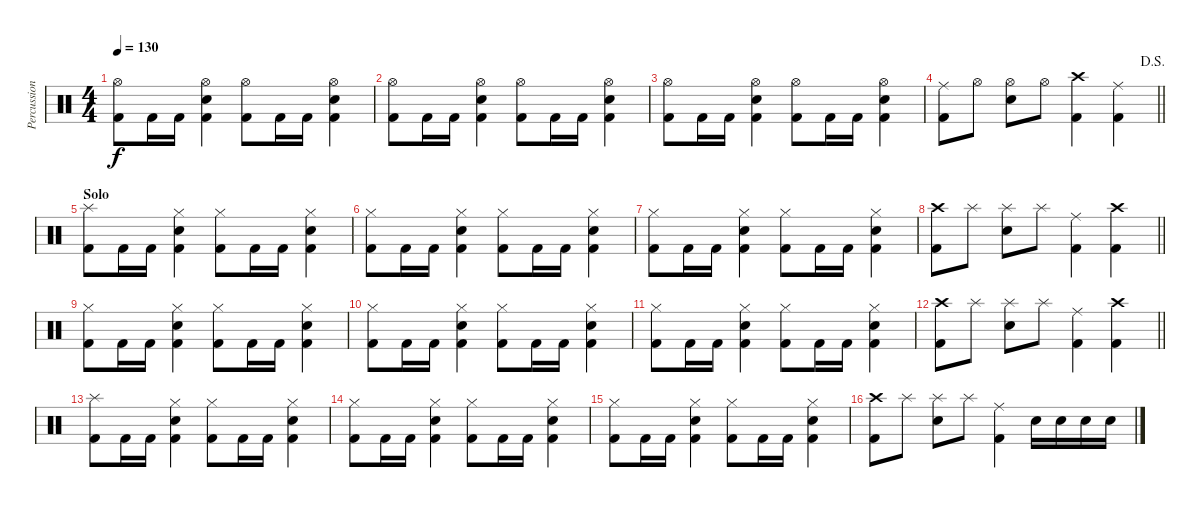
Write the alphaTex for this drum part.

\track ("Percussion" "Percussion") {instrument percussion}
\staff {score}
\articulation defaults
\ts (4 4)
\tempo 130
\clef neutral
\ks c
("Hi-Hat (open)" "Kick (hit) 2").8{dy f} "Kick (hit) 2".16 "Kick (hit) 2".16 ("Hi-Hat (open)" "Electric Snare (hit)" "Kick (hit) 2").4 ("Hi-Hat (open)" "Kick (hit) 2").8 "Kick (hit) 2".16 "Kick (hit) 2".16 ("Hi-Hat (open)" "Electric Snare (hit)" "Kick (hit) 2").4 |
("Hi-Hat (open)" "Kick (hit) 2").8 "Kick (hit) 2".16 "Kick (hit) 2".16 ("Hi-Hat (open)" "Electric Snare (hit)" "Kick (hit) 2").4 ("Hi-Hat (open)" "Kick (hit) 2").8 "Kick (hit) 2".16 "Kick (hit) 2".16 ("Hi-Hat (open)" "Electric Snare (hit)" "Kick (hit) 2").4 |
("Hi-Hat (open)" "Kick (hit) 2").8 "Kick (hit) 2".16 "Kick (hit) 2".16 ("Hi-Hat (open)" "Electric Snare (hit)" "Kick (hit) 2").4 ("Hi-Hat (open)" "Kick (hit) 2").8 "Kick (hit) 2".16 "Kick (hit) 2".16 ("Hi-Hat (open)" "Electric Snare (hit)" "Kick (hit) 2").4 |
\jump dalsegno
\barLineRight lightlight
("Ride (middle)" "Kick (hit) 2").8 "Hi-Hat (open)".8 ("Hi-Hat (open)" "Electric Snare (hit)").8 "Hi-Hat (open)".8 ("Crash high (hit)" "Kick (hit) 2").4 ("Ride (middle)" "Kick (hit) 2").4 |
\section ("" "Solo")
("Splash (hit)" "Kick (hit) 2").8 "Kick (hit) 2".16 "Kick (hit) 2".16 ("Hi-Hat (closed)" "Electric Snare (hit)" "Kick (hit) 2").4 ("Hi-Hat (closed)" "Kick (hit) 2").8 "Kick (hit) 2".16 "Kick (hit) 2".16 ("Hi-Hat (closed)" "Electric Snare (hit)" "Kick (hit) 2").4 |
("Hi-Hat (closed)" "Kick (hit) 2").8 "Kick (hit) 2".16 "Kick (hit) 2".16 ("Hi-Hat (closed)" "Electric Snare (hit)" "Kick (hit) 2").4 ("Hi-Hat (closed)" "Kick (hit) 2").8 "Kick (hit) 2".16 "Kick (hit) 2".16 ("Hi-Hat (closed)" "Electric Snare (hit)" "Kick (hit) 2").4 |
("Hi-Hat (closed)" "Kick (hit) 2").8 "Kick (hit) 2".16 "Kick (hit) 2".16 ("Hi-Hat (closed)" "Electric Snare (hit)" "Kick (hit) 2").4 ("Hi-Hat (closed)" "Kick (hit) 2").8 "Kick (hit) 2".16 "Kick (hit) 2".16 ("Hi-Hat (closed)" "Electric Snare (hit)" "Kick (hit) 2").4 |
\barLineRight lightlight
("Crash high (hit)" "Kick (hit) 2").8 "Splash (hit)".8 ("Splash (hit)" "Electric Snare (hit)").8 "Splash (hit)".8 ("Ride (middle)" "Kick (hit) 2").4 ("Crash high (hit)" "Kick (hit) 2").4 |
("Hi-Hat (closed)" "Kick (hit) 2").8 "Kick (hit) 2".16 "Kick (hit) 2".16 ("Hi-Hat (closed)" "Electric Snare (hit)" "Kick (hit) 2").4 ("Hi-Hat (closed)" "Kick (hit) 2").8 "Kick (hit) 2".16 "Kick (hit) 2".16 ("Hi-Hat (closed)" "Electric Snare (hit)" "Kick (hit) 2").4 |
("Hi-Hat (closed)" "Kick (hit) 2").8 "Kick (hit) 2".16 "Kick (hit) 2".16 ("Hi-Hat (closed)" "Electric Snare (hit)" "Kick (hit) 2").4 ("Hi-Hat (closed)" "Kick (hit) 2").8 "Kick (hit) 2".16 "Kick (hit) 2".16 ("Hi-Hat (closed)" "Electric Snare (hit)" "Kick (hit) 2").4 |
("Hi-Hat (closed)" "Kick (hit) 2").8 "Kick (hit) 2".16 "Kick (hit) 2".16 ("Hi-Hat (closed)" "Electric Snare (hit)" "Kick (hit) 2").4 ("Hi-Hat (closed)" "Kick (hit) 2").8 "Kick (hit) 2".16 "Kick (hit) 2".16 ("Hi-Hat (closed)" "Electric Snare (hit)" "Kick (hit) 2").4 |
\barLineRight lightlight
("Crash high (hit)" "Kick (hit) 2").8 "Splash (hit)".8 ("Splash (hit)" "Electric Snare (hit)").8 "Splash (hit)".8 ("Ride (middle)" "Kick (hit) 2").4 ("Crash high (hit)" "Kick (hit) 2").4 |
("Splash (hit)" "Kick (hit) 2").8 "Kick (hit) 2".16 "Kick (hit) 2".16 ("Hi-Hat (closed)" "Electric Snare (hit)" "Kick (hit) 2").4 ("Hi-Hat (closed)" "Kick (hit) 2").8 "Kick (hit) 2".16 "Kick (hit) 2".16 ("Hi-Hat (closed)" "Electric Snare (hit)" "Kick (hit) 2").4 |
("Hi-Hat (closed)" "Kick (hit) 2").8 "Kick (hit) 2".16 "Kick (hit) 2".16 ("Hi-Hat (closed)" "Electric Snare (hit)" "Kick (hit) 2").4 ("Hi-Hat (closed)" "Kick (hit) 2").8 "Kick (hit) 2".16 "Kick (hit) 2".16 ("Hi-Hat (closed)" "Electric Snare (hit)" "Kick (hit) 2").4 |
("Hi-Hat (closed)" "Kick (hit) 2").8 "Kick (hit) 2".16 "Kick (hit) 2".16 ("Hi-Hat (closed)" "Electric Snare (hit)" "Kick (hit) 2").4 ("Hi-Hat (closed)" "Kick (hit) 2").8 "Kick (hit) 2".16 "Kick (hit) 2".16 ("Hi-Hat (closed)" "Electric Snare (hit)" "Kick (hit) 2").4 |
("Crash high (hit)" "Kick (hit) 2").8 "Splash (hit)".8 ("Splash (hit)" "Electric Snare (hit)").8 "Splash (hit)".8 ("Ride (middle)" "Kick (hit) 2").4 "Electric Snare (hit)".16 "Electric Snare (hit)".16 "Electric Snare (hit)".16 "Electric Snare (hit)".16
